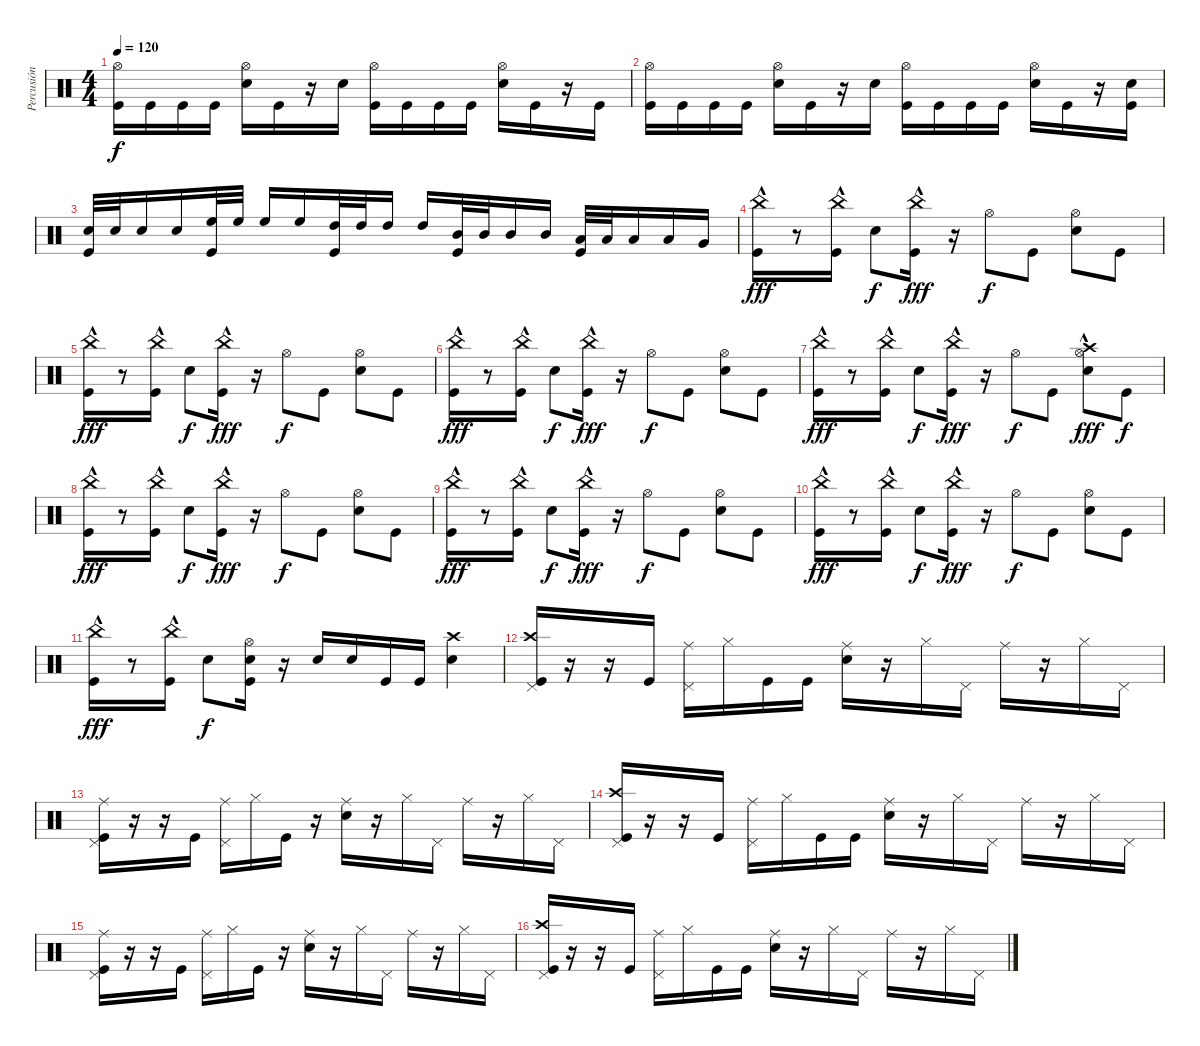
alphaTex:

\track ("Percusión" "Percusión") {instrument percussion}
\staff {score}
\articulation defaults
\ts (4 4)
\tempo 120
\clef neutral
\ks c
("Hi-Hat (open)" "Kick (hit)").16{dy f} "Kick (hit)".16 "Kick (hit)".16 "Kick (hit)".16 ("Hi-Hat (open)" "Snare (hit) 2").16 "Kick (hit)".16 r.16 "Snare (hit) 2".16 ("Hi-Hat (open)" "Kick (hit)").16 "Kick (hit)".16 "Kick (hit)".16 "Kick (hit)".16 ("Hi-Hat (open)" "Snare (hit) 2").16 "Kick (hit)".16 r.16 "Kick (hit)".16 |
("Hi-Hat (open)" "Kick (hit)").16 "Kick (hit)".16 "Kick (hit)".16 "Kick (hit)".16 ("Hi-Hat (open)" "Snare (hit) 2").16 "Kick (hit)".16 r.16 "Snare (hit) 2".16 ("Hi-Hat (open)" "Kick (hit)").16 "Kick (hit)".16 "Kick (hit)".16 "Kick (hit)".16 ("Hi-Hat (open)" "Snare (hit) 2").16 "Kick (hit)".16 r.16 ("Snare (hit) 2" "Kick (hit)").16 |
("Snare (hit) 2" "Kick (hit)").32 "Snare (hit) 2".32 "Snare (hit) 2".16 "Snare (hit) 2".16 ("High Floor Tom (hit)" "Kick (hit)").32 "High Floor Tom (hit)".32 "High Floor Tom (hit)".16 "High Floor Tom (hit)".16 ("High Tom (hit)" "Kick (hit)").32 "High Tom (hit)".32 "High Tom (hit)".16 "High Tom (hit)".16 ("Mid Tom (hit)" "Kick (hit)").32 "Mid Tom (hit)".32 "Mid Tom (hit)".16 "Mid Tom (hit)".16 ("Low Tom (hit)" "Kick (hit)").32 "Low Tom (hit)".32 "Low Tom (hit)".16 "Low Tom (hit)".16 "Very Low Tom (hit)".16 |
("China (hit)"{hac} "Kick (hit)").16{dy fff} r.8 ("China (hit)"{hac} "Kick (hit)").16 "Snare (hit) 2".8{dy f} ("China (hit)"{hac} "Kick (hit)").16{dy fff} r.16 "Hi-Hat (open)".8{dy f} "Kick (hit)".8 ("Hi-Hat (open)" "Snare (hit) 2").8 "Kick (hit)".8 |
("China (hit)"{hac} "Kick (hit)").16{dy fff} r.8 ("China (hit)"{hac} "Kick (hit)").16 "Snare (hit) 2".8{dy f} ("China (hit)"{hac} "Kick (hit)").16{dy fff} r.16 "Hi-Hat (open)".8{dy f} "Kick (hit)".8 ("Hi-Hat (open)" "Snare (hit) 2").8 "Kick (hit)".8 |
("China (hit)"{hac} "Kick (hit)").16{dy fff} r.8 ("China (hit)"{hac} "Kick (hit)").16 "Snare (hit) 2".8{dy f} ("China (hit)"{hac} "Kick (hit)").16{dy fff} r.16 "Hi-Hat (open)".8{dy f} "Kick (hit)".8 ("Hi-Hat (open)" "Snare (hit) 2").8 "Kick (hit)".8 |
("China (hit)"{hac} "Kick (hit)").16{dy fff} r.8 ("China (hit)"{hac} "Kick (hit)").16 "Snare (hit) 2".8{dy f} ("China (hit)"{hac} "Kick (hit)").16{dy fff} r.16 "Hi-Hat (open)".8{dy f} "Kick (hit)".8 ("Crash high (hit)"{hac} "Hi-Hat (open)" "Snare (hit) 2").8{dy fff} "Kick (hit)".8{dy f} |
("China (hit)"{hac} "Kick (hit)").16{dy fff} r.8 ("China (hit)"{hac} "Kick (hit)").16 "Snare (hit) 2".8{dy f} ("China (hit)"{hac} "Kick (hit)").16{dy fff} r.16 "Hi-Hat (open)".8{dy f} "Kick (hit)".8 ("Hi-Hat (open)" "Snare (hit) 2").8 "Kick (hit)".8 |
("China (hit)"{hac} "Kick (hit)").16{dy fff} r.8 ("China (hit)"{hac} "Kick (hit)").16 "Snare (hit) 2".8{dy f} ("China (hit)"{hac} "Kick (hit)").16{dy fff} r.16 "Hi-Hat (open)".8{dy f} "Kick (hit)".8 ("Hi-Hat (open)" "Snare (hit) 2").8 "Kick (hit)".8 |
("China (hit)"{hac} "Kick (hit)").16{dy fff} r.8 ("China (hit)"{hac} "Kick (hit)").16 "Snare (hit) 2".8{dy f} ("China (hit)"{hac} "Kick (hit)").16{dy fff} r.16 "Hi-Hat (open)".8{dy f} "Kick (hit)".8 ("Hi-Hat (open)" "Snare (hit) 2").8 "Kick (hit)".8 |
("China (hit)"{hac} "Kick (hit)").16{dy fff} r.8 ("China (hit)"{hac} "Kick (hit)").16 "Snare (hit) 2".8{dy f} ("Hi-Hat (open)" "Snare (hit) 2" "Kick (hit)").16 r.16 "Snare (hit) 2".16 "Snare (hit) 2".16 "Kick (hit)".16 "Kick (hit)".16 ("Crash high (hit)" "Snare (hit) 2").4 |
("Crash high (hit)" "Pedal Hi-Hat (hit)" "Kick (hit)").16 r.16 r.16 "Kick (hit)".16 ("Ride (middle)" "Pedal Hi-Hat (hit)").16 "Hi-Hat (closed)".16 "Kick (hit)".16 "Kick (hit)".16 ("Ride (middle)" "Snare (hit) 2").16 r.16 "Hi-Hat (closed)".16 "Pedal Hi-Hat (hit)".16 "Ride (middle)".16 r.16 "Hi-Hat (closed)".16 "Pedal Hi-Hat (hit)".16 |
("Ride (middle)" "Pedal Hi-Hat (hit)" "Kick (hit)").16 r.16 r.16 "Kick (hit)".16 ("Ride (middle)" "Pedal Hi-Hat (hit)").16 "Hi-Hat (closed)".16 "Kick (hit)".16 r.16 ("Ride (middle)" "Snare (hit) 2").16 r.16 "Hi-Hat (closed)".16 "Pedal Hi-Hat (hit)".16 "Ride (middle)".16 r.16 "Hi-Hat (closed)".16 "Pedal Hi-Hat (hit)".16 |
("Crash high (hit)" "Pedal Hi-Hat (hit)" "Kick (hit)").16 r.16 r.16 "Kick (hit)".16 ("Ride (middle)" "Pedal Hi-Hat (hit)").16 "Hi-Hat (closed)".16 "Kick (hit)".16 "Kick (hit)".16 ("Ride (middle)" "Snare (hit) 2").16 r.16 "Hi-Hat (closed)".16 "Pedal Hi-Hat (hit)".16 "Ride (middle)".16 r.16 "Hi-Hat (closed)".16 "Pedal Hi-Hat (hit)".16 |
("Ride (middle)" "Pedal Hi-Hat (hit)" "Kick (hit)").16 r.16 r.16 "Kick (hit)".16 ("Ride (middle)" "Pedal Hi-Hat (hit)").16 "Hi-Hat (closed)".16 "Kick (hit)".16 r.16 ("Ride (middle)" "Snare (hit) 2").16 r.16 "Hi-Hat (closed)".16 "Pedal Hi-Hat (hit)".16 "Ride (middle)".16 r.16 "Hi-Hat (closed)".16 "Pedal Hi-Hat (hit)".16 |
("Crash high (hit)" "Pedal Hi-Hat (hit)" "Kick (hit)").16 r.16 r.16 "Kick (hit)".16 ("Ride (middle)" "Pedal Hi-Hat (hit)").16 "Hi-Hat (closed)".16 "Kick (hit)".16 "Kick (hit)".16 ("Ride (middle)" "Snare (hit) 2").16 r.16 "Hi-Hat (closed)".16 "Pedal Hi-Hat (hit)".16 "Ride (middle)".16 r.16 "Hi-Hat (closed)".16 "Pedal Hi-Hat (hit)".16
